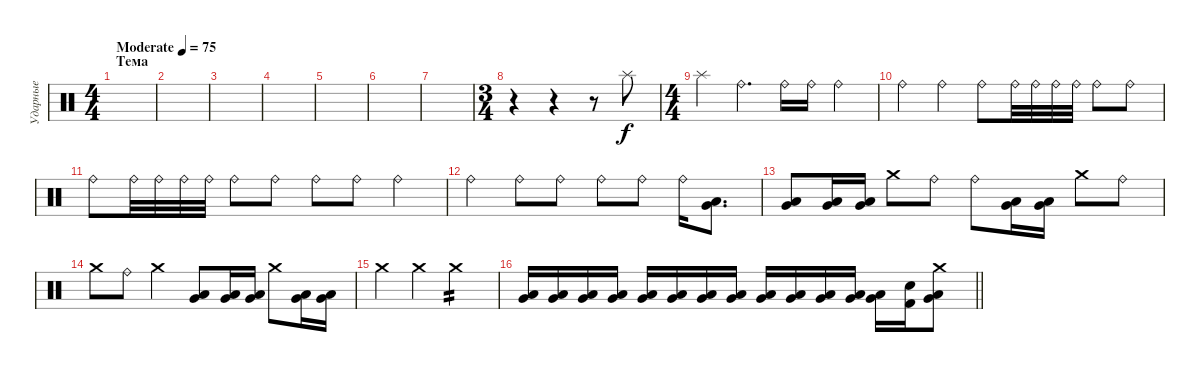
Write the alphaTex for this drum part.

\track ("Ударные" "Ударные") {instrument percussion}
\staff {score}
\articulation defaults
\ts (4 4)
\section ("" "Тема")
\tempo (75 "Moderate")
\clef neutral
\ks c
|
|
|
|
|
|
|
\ts (3 4)
r.4 r.4 r.8 "Splash (hit)".8 |
\ts (4 4)
"Splash (hit)".4 "Ride (bell)".4{d} "Ride (bell)".16 "Ride (bell)".16 "Ride (bell)".4 |
"Ride (bell)".4 "Ride (bell)".4 "Ride (bell)".8 "Ride (bell)".32 "Ride (bell)".32 "Ride (bell)".32 "Ride (bell)".32 "Ride (bell)".8 "Ride (bell)".8 |
"Ride (bell)".8 "Ride (bell)".32 "Ride (bell)".32 "Ride (bell)".32 "Ride (bell)".32 "Ride (bell)".8 "Ride (bell)".8 "Ride (bell)".8 "Ride (bell)".8 "Ride (bell)".4 |
"Ride (bell)".4 "Ride (bell)".8 "Ride (bell)".8 "Ride (bell)".8 "Ride (bell)".8 "Ride (bell)".16 ("Very Low Tom (hit)" "Low Floor Tom (hit)").8{d} |
("Very Low Tom (hit)" "Low Floor Tom (hit)").8 ("Very Low Tom (hit)" "Low Floor Tom (hit)").16 ("Very Low Tom (hit)" "Low Floor Tom (hit)").16 "Crash medium (hit)".8 "Ride (bell)".8 "Ride (bell)".8 ("Very Low Tom (hit)" "Low Floor Tom (hit)").16 ("Very Low Tom (hit)" "Low Floor Tom (hit)").16 "Crash medium (hit)".8 "Ride (bell)".8 |
"Crash medium (hit)".8 "Ride (bell)".8 "Crash medium (hit)".4 ("Very Low Tom (hit)" "Low Floor Tom (hit)").8 ("Very Low Tom (hit)" "Low Floor Tom (hit)").16 ("Very Low Tom (hit)" "Low Floor Tom (hit)").16 "Crash medium (hit)".8 ("Very Low Tom (hit)" "Low Floor Tom (hit)").16 ("Very Low Tom (hit)" "Low Floor Tom (hit)").16 |
"Crash medium (hit)".4 "Crash medium (hit)".4 "Crash medium (hit)".2{tp 2} |
\barLineRight lightlight
("Very Low Tom (hit)" "Low Floor Tom (hit)").16 ("Very Low Tom (hit)" "Low Floor Tom (hit)").16 ("Very Low Tom (hit)" "Low Floor Tom (hit)").16 ("Very Low Tom (hit)" "Low Floor Tom (hit)").16 ("Very Low Tom (hit)" "Low Floor Tom (hit)").16 ("Very Low Tom (hit)" "Low Floor Tom (hit)").16 ("Very Low Tom (hit)" "Low Floor Tom (hit)").16 ("Very Low Tom (hit)" "Low Floor Tom (hit)").16 ("Very Low Tom (hit)" "Low Floor Tom (hit)").16 ("Very Low Tom (hit)" "Low Floor Tom (hit)").16 ("Very Low Tom (hit)" "Low Floor Tom (hit)").16 ("Very Low Tom (hit)" "Low Floor Tom (hit)").16 ("Very Low Tom (hit)" "Low Floor Tom (hit)").16 ("Snare (hit) 2" "Kick (hit) 2").16 ("Very Low Tom (hit)" "Low Floor Tom (hit)" "Crash medium (hit)").8
